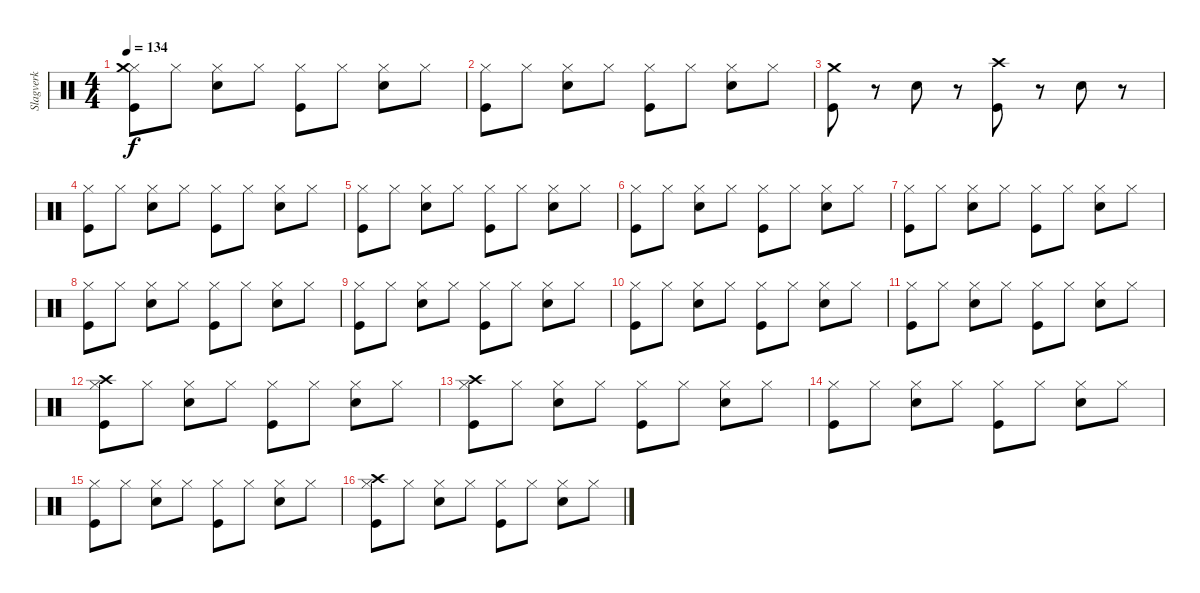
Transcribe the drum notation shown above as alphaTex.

\track ("Slagverk" "Slagverk") {instrument percussion}
\staff
\articulation defaults
\ts (4 4)
\tempo 134
\clef neutral
\ks c
("Hi-Hat (closed)" "Crash medium (hit)" "Kick (hit)").8{dy f} "Hi-Hat (closed)".8 ("Hi-Hat (closed)" "Electric Snare (hit)").8 "Hi-Hat (closed)".8 ("Hi-Hat (closed)" "Kick (hit)").8 "Hi-Hat (closed)".8 ("Hi-Hat (closed)" "Electric Snare (hit)").8 "Hi-Hat (closed)".8 |
("Hi-Hat (closed)" "Kick (hit)").8 "Hi-Hat (closed)".8 ("Hi-Hat (closed)" "Electric Snare (hit)").8 "Hi-Hat (closed)".8 ("Hi-Hat (closed)" "Kick (hit)").8 "Hi-Hat (closed)".8 ("Hi-Hat (closed)" "Electric Snare (hit)").8 "Hi-Hat (closed)".8 |
("Crash medium (hit)" "Kick (hit)").8 r.8 "Electric Snare (hit)".8 r.8 ("Crash high (hit)" "Kick (hit)").8 r.8 "Electric Snare (hit)".8 r.8 |
("Hi-Hat (closed)" "Kick (hit)").8 "Hi-Hat (closed)".8 ("Hi-Hat (closed)" "Electric Snare (hit)").8 "Hi-Hat (closed)".8 ("Hi-Hat (closed)" "Kick (hit)").8 "Hi-Hat (closed)".8 ("Hi-Hat (closed)" "Electric Snare (hit)").8 "Hi-Hat (closed)".8 |
("Hi-Hat (closed)" "Kick (hit)").8 "Hi-Hat (closed)".8 ("Hi-Hat (closed)" "Electric Snare (hit)").8 "Hi-Hat (closed)".8 ("Hi-Hat (closed)" "Kick (hit)").8 "Hi-Hat (closed)".8 ("Hi-Hat (closed)" "Electric Snare (hit)").8 "Hi-Hat (closed)".8 |
("Hi-Hat (closed)" "Kick (hit)").8 "Hi-Hat (closed)".8 ("Hi-Hat (closed)" "Electric Snare (hit)").8 "Hi-Hat (closed)".8 ("Hi-Hat (closed)" "Kick (hit)").8 "Hi-Hat (closed)".8 ("Hi-Hat (closed)" "Electric Snare (hit)").8 "Hi-Hat (closed)".8 |
("Hi-Hat (closed)" "Kick (hit)").8 "Hi-Hat (closed)".8 ("Hi-Hat (closed)" "Electric Snare (hit)").8 "Hi-Hat (closed)".8 ("Hi-Hat (closed)" "Kick (hit)").8 "Hi-Hat (closed)".8 ("Hi-Hat (closed)" "Electric Snare (hit)").8 "Hi-Hat (closed)".8 |
("Hi-Hat (closed)" "Kick (hit)").8 "Hi-Hat (closed)".8 ("Hi-Hat (closed)" "Electric Snare (hit)").8 "Hi-Hat (closed)".8 ("Hi-Hat (closed)" "Kick (hit)").8 "Hi-Hat (closed)".8 ("Hi-Hat (closed)" "Electric Snare (hit)").8 "Hi-Hat (closed)".8 |
("Hi-Hat (closed)" "Kick (hit)").8 "Hi-Hat (closed)".8 ("Hi-Hat (closed)" "Electric Snare (hit)").8 "Hi-Hat (closed)".8 ("Hi-Hat (closed)" "Kick (hit)").8 "Hi-Hat (closed)".8 ("Hi-Hat (closed)" "Electric Snare (hit)").8 "Hi-Hat (closed)".8 |
("Hi-Hat (closed)" "Kick (hit)").8 "Hi-Hat (closed)".8 ("Hi-Hat (closed)" "Electric Snare (hit)").8 "Hi-Hat (closed)".8 ("Hi-Hat (closed)" "Kick (hit)").8 "Hi-Hat (closed)".8 ("Hi-Hat (closed)" "Electric Snare (hit)").8 "Hi-Hat (closed)".8 |
("Hi-Hat (closed)" "Kick (hit)").8 "Hi-Hat (closed)".8 ("Hi-Hat (closed)" "Electric Snare (hit)").8 "Hi-Hat (closed)".8 ("Hi-Hat (closed)" "Kick (hit)").8 "Hi-Hat (closed)".8 ("Hi-Hat (closed)" "Electric Snare (hit)").8 "Hi-Hat (closed)".8 |
("Hi-Hat (closed)" "Crash high (hit)" "Kick (hit)").8 "Hi-Hat (closed)".8 ("Hi-Hat (closed)" "Electric Snare (hit)").8 "Hi-Hat (closed)".8 ("Hi-Hat (closed)" "Kick (hit)").8 "Hi-Hat (closed)".8 ("Hi-Hat (closed)" "Electric Snare (hit)").8 "Hi-Hat (closed)".8 |
("Hi-Hat (closed)" "Crash high (hit)" "Kick (hit)").8 "Hi-Hat (closed)".8 ("Hi-Hat (closed)" "Electric Snare (hit)").8 "Hi-Hat (closed)".8 ("Hi-Hat (closed)" "Kick (hit)").8 "Hi-Hat (closed)".8 ("Hi-Hat (closed)" "Electric Snare (hit)").8 "Hi-Hat (closed)".8 |
("Hi-Hat (closed)" "Kick (hit)").8 "Hi-Hat (closed)".8 ("Hi-Hat (closed)" "Electric Snare (hit)").8 "Hi-Hat (closed)".8 ("Hi-Hat (closed)" "Kick (hit)").8 "Hi-Hat (closed)".8 ("Hi-Hat (closed)" "Electric Snare (hit)").8 "Hi-Hat (closed)".8 |
("Hi-Hat (closed)" "Kick (hit)").8 "Hi-Hat (closed)".8 ("Hi-Hat (closed)" "Electric Snare (hit)").8 "Hi-Hat (closed)".8 ("Hi-Hat (closed)" "Kick (hit)").8 "Hi-Hat (closed)".8 ("Hi-Hat (closed)" "Electric Snare (hit)").8 "Hi-Hat (closed)".8 |
("Hi-Hat (closed)" "Crash high (hit)" "Kick (hit)").8 "Hi-Hat (closed)".8 ("Hi-Hat (closed)" "Electric Snare (hit)").8 "Hi-Hat (closed)".8 ("Hi-Hat (closed)" "Kick (hit)").8 "Hi-Hat (closed)".8 ("Hi-Hat (closed)" "Electric Snare (hit)").8 "Hi-Hat (closed)".8
